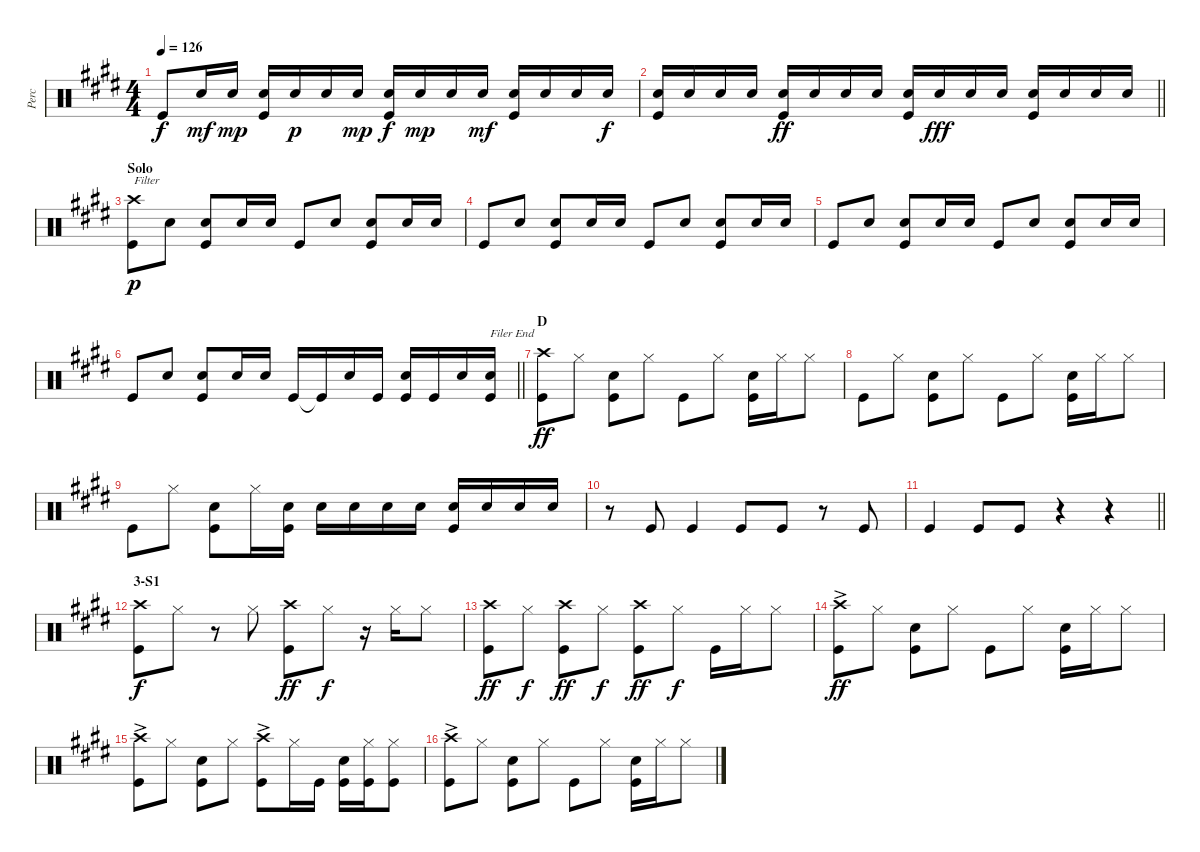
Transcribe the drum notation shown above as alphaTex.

\track ("Perc" "Perc") {instrument percussion}
\staff {score}
\articulation defaults
\ts (4 4)
\tempo 126
\clef neutral
\ks e "Kick (hit)".8{dy f} "Snare (hit) 2".16{dy mf} "Snare (hit) 2".16{dy mp}
("Snare (hit) 2" "Kick (hit)").16 "Snare (hit) 2".16{dy p} "Snare (hit) 2".16 "Snare (hit) 2".16{dy mp} ("Snare (hit) 2" "Kick (hit)").16{dy f} "Snare (hit) 2".16{dy mp} "Snare (hit) 2".16 "Snare (hit) 2".16{dy mf} ("Snare (hit) 2" "Kick (hit)").16 "Snare (hit) 2".16 "Snare (hit) 2".16 "Snare (hit) 2".16{dy f} |
\barLineRight lightlight
("Snare (hit) 2" "Kick (hit)").16 "Snare (hit) 2".16 "Snare (hit) 2".16 "Snare (hit) 2".16 ("Snare (hit) 2" "Kick (hit)").16{dy ff} "Snare (hit) 2".16 "Snare (hit) 2".16 "Snare (hit) 2".16 ("Snare (hit) 2" "Kick (hit)").16 "Snare (hit) 2".16{dy fff} "Snare (hit) 2".16 "Snare (hit) 2".16 ("Snare (hit) 2" "Kick (hit)").16 "Snare (hit) 2".16 "Snare (hit) 2".16 "Snare (hit) 2".16 |
\section ("" "Solo")
("Crash high (hit)" "Kick (hit)").8{txt "Filter" dy p} "Snare (hit) 2".8 ("Snare (hit) 2" "Kick (hit)").8 "Snare (hit) 2".16 "Snare (hit) 2".16 "Kick (hit)".8 "Snare (hit) 2".8 ("Snare (hit) 2" "Kick (hit)").8 "Snare (hit) 2".16 "Snare (hit) 2".16 |
"Kick (hit)".8 "Snare (hit) 2".8 ("Snare (hit) 2" "Kick (hit)").8 "Snare (hit) 2".16 "Snare (hit) 2".16 "Kick (hit)".8 "Snare (hit) 2".8 ("Snare (hit) 2" "Kick (hit)").8 "Snare (hit) 2".16 "Snare (hit) 2".16 |
"Kick (hit)".8 "Snare (hit) 2".8 ("Snare (hit) 2" "Kick (hit)").8 "Snare (hit) 2".16 "Snare (hit) 2".16 "Kick (hit)".8 "Snare (hit) 2".8 ("Snare (hit) 2" "Kick (hit)").8 "Snare (hit) 2".16 "Snare (hit) 2".16 |
\barLineRight lightlight "Kick (hit)".8 "Snare (hit) 2".8
("Snare (hit) 2" "Kick (hit)").8 "Snare (hit) 2".16 "Snare (hit) 2".16 "Kick (hit)".16 "Kick (hit)"{t}.16 "Snare (hit) 2".16 "Kick (hit)".16 ("Snare (hit) 2" "Kick (hit)").16 "Kick (hit)".16 "Snare (hit) 2".16 ("Snare (hit) 2" "Kick (hit)").16{txt "Filer End"} |
\section ("" "D")
("Crash high (hit)" "Kick (hit)").8{dy ff} "Hi-Hat (closed)".8 ("Snare (hit) 2" "Kick (hit)").8 "Hi-Hat (closed)".8 "Kick (hit)".8 "Hi-Hat (closed)".8 ("Snare (hit) 2" "Kick (hit)").16 "Hi-Hat (closed)".16 "Hi-Hat (closed)".8 |
"Kick (hit)".8 "Hi-Hat (closed)".8 ("Snare (hit) 2" "Kick (hit)").8 "Hi-Hat (closed)".8 "Kick (hit)".8 "Hi-Hat (closed)".8 ("Snare (hit) 2" "Kick (hit)").16 "Hi-Hat (closed)".16 "Hi-Hat (closed)".8 |
"Kick (hit)".8 "Hi-Hat (closed)".8 ("Snare (hit) 2" "Kick (hit)").8 "Hi-Hat (closed)".16 ("Snare (hit) 2" "Kick (hit)").16 "Snare (hit) 2".16 "Snare (hit) 2".16 "Snare (hit) 2".16 "Snare (hit) 2".16 ("Snare (hit) 2" "Kick (hit)").16 "Snare (hit) 2".16 "Snare (hit) 2".16 "Snare (hit) 2".16 |
r.8 "Kick (hit)".8 "Kick (hit)".4 "Kick (hit)".8 "Kick (hit)".8 r.8 "Kick (hit)".8 |
\barLineRight lightlight "Kick (hit)".4 "Kick (hit)".8 "Kick (hit)".8
r.4 r.4 |
\section ("" "3-S1")
("Crash high (hit)" "Kick (hit)").8{dy f} "Hi-Hat (closed)".8 r.8 "Hi-Hat (closed)".8 ("Crash high (hit)" "Kick (hit)").8{dy ff} "Hi-Hat (closed)".8{dy f} r.16 "Hi-Hat (closed)".16 "Hi-Hat (closed)".8 |
("Crash high (hit)" "Kick (hit)").8{dy ff} "Hi-Hat (closed)".8{dy f} ("Crash high (hit)" "Kick (hit)").8{dy ff} "Hi-Hat (closed)".8{dy f} ("Crash high (hit)" "Kick (hit)").8{dy ff} "Hi-Hat (closed)".8{dy f} "Kick (hit)".16 "Hi-Hat (closed)".16 "Hi-Hat (closed)".8 |
("Crash high (hit)"{ac} "Kick (hit)").8{dy ff} "Hi-Hat (closed)".8 ("Snare (hit) 2" "Kick (hit)").8 "Hi-Hat (closed)".8 "Kick (hit)".8 "Hi-Hat (closed)".8 ("Snare (hit) 2" "Kick (hit)").16 "Hi-Hat (closed)".16 "Hi-Hat (closed)".8 |
("Crash high (hit)"{ac} "Kick (hit)").8 "Hi-Hat (closed)".8 ("Snare (hit) 2" "Kick (hit)").8 "Hi-Hat (closed)".8 ("Crash high (hit)"{ac} "Kick (hit)").8 "Hi-Hat (closed)".16 "Kick (hit)".16 ("Snare (hit) 2" "Kick (hit)").16 ("Hi-Hat (closed)" "Kick (hit)").16 ("Hi-Hat (closed)" "Kick (hit)").8 |
("Crash high (hit)"{ac} "Kick (hit)").8 "Hi-Hat (closed)".8 ("Snare (hit) 2" "Kick (hit)").8 "Hi-Hat (closed)".8 "Kick (hit)".8 "Hi-Hat (closed)".8 ("Snare (hit) 2" "Kick (hit)").16 "Hi-Hat (closed)".16 "Hi-Hat (closed)".8
